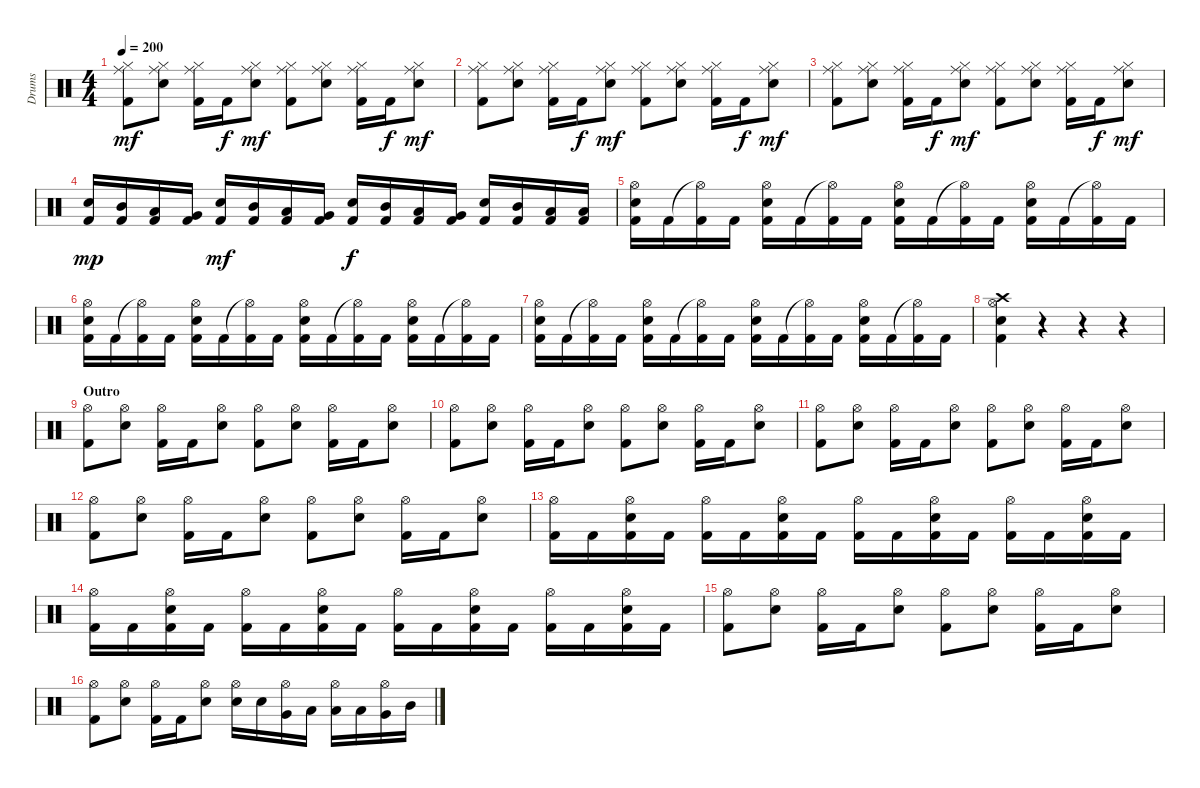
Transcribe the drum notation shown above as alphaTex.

\track ("Drums" "Drums") {instrument percussion}
\staff {score}
\articulation defaults
\ts (4 4)
\tempo 200
\clef neutral
\ks c
("Hi-Hat (closed)" "Ride (middle)" "Kick (hit) 2").8{dy mf} ("Hi-Hat (closed)" "Ride (middle)" "Snare (hit) 2").8 ("Hi-Hat (closed)" "Ride (middle)" "Kick (hit) 2").16 "Kick (hit) 2".16{dy f} ("Hi-Hat (closed)" "Ride (middle)" "Snare (hit) 2").8{dy mf} ("Hi-Hat (closed)" "Ride (middle)" "Kick (hit) 2").8 ("Hi-Hat (closed)" "Ride (middle)" "Snare (hit) 2").8 ("Hi-Hat (closed)" "Ride (middle)" "Kick (hit) 2").16 "Kick (hit) 2".16{dy f} ("Hi-Hat (closed)" "Ride (middle)" "Snare (hit) 2").8{dy mf} |
("Hi-Hat (closed)" "Ride (middle)" "Kick (hit) 2").8 ("Hi-Hat (closed)" "Ride (middle)" "Snare (hit) 2").8 ("Hi-Hat (closed)" "Ride (middle)" "Kick (hit) 2").16 "Kick (hit) 2".16{dy f} ("Hi-Hat (closed)" "Ride (middle)" "Snare (hit) 2").8{dy mf} ("Hi-Hat (closed)" "Ride (middle)" "Kick (hit) 2").8 ("Hi-Hat (closed)" "Ride (middle)" "Snare (hit) 2").8 ("Hi-Hat (closed)" "Ride (middle)" "Kick (hit) 2").16 "Kick (hit) 2".16{dy f} ("Hi-Hat (closed)" "Ride (middle)" "Snare (hit) 2").8{dy mf} |
("Hi-Hat (closed)" "Ride (middle)" "Kick (hit) 2").8 ("Hi-Hat (closed)" "Ride (middle)" "Snare (hit) 2").8 ("Hi-Hat (closed)" "Ride (middle)" "Kick (hit) 2").16 "Kick (hit) 2".16{dy f} ("Hi-Hat (closed)" "Ride (middle)" "Snare (hit) 2").8{dy mf} ("Hi-Hat (closed)" "Ride (middle)" "Kick (hit) 2").8 ("Hi-Hat (closed)" "Ride (middle)" "Snare (hit) 2").8 ("Hi-Hat (closed)" "Ride (middle)" "Kick (hit) 2").16 "Kick (hit) 2".16{dy f} ("Hi-Hat (closed)" "Ride (middle)" "Snare (hit) 2").8{dy mf} |
("Snare (hit) 2" "Kick (hit) 2").16{dy mp} ("Mid Tom (hit)" "Kick (hit) 2").16 ("Low Tom (hit)" "Kick (hit) 2").16 ("Very Low Tom (hit)" "Kick (hit) 2").16 ("Snare (hit) 2" "Kick (hit) 2").16{dy mf} ("Mid Tom (hit)" "Kick (hit) 2").16 ("Low Tom (hit)" "Kick (hit) 2").16 ("Very Low Tom (hit)" "Kick (hit) 2").16 ("Snare (hit) 2" "Kick (hit) 2").16{dy f} ("Mid Tom (hit)" "Kick (hit) 2").16 ("Low Tom (hit)" "Kick (hit) 2").16 ("Very Low Tom (hit)" "Kick (hit) 2").16 ("Snare (hit) 2" "Kick (hit) 2").16 ("Mid Tom (hit)" "Kick (hit) 2").16 ("Low Tom (hit)" "Kick (hit) 2").16 ("Low Floor Tom (hit)" "Kick (hit) 2").16 |
("Hi-Hat (open)" "Snare (hit) 2" "Kick (hit) 2").16 "Kick (hit) 2".16 ("Hi-Hat (open)"{t} "Kick (hit) 2").16 "Kick (hit) 2".16 ("Hi-Hat (open)" "Snare (hit) 2" "Kick (hit) 2").16 "Kick (hit) 2".16 ("Hi-Hat (open)"{t} "Kick (hit) 2").16 "Kick (hit) 2".16 ("Hi-Hat (open)" "Snare (hit) 2" "Kick (hit) 2").16 "Kick (hit) 2".16 ("Hi-Hat (open)"{t} "Kick (hit) 2").16 "Kick (hit) 2".16 ("Hi-Hat (open)" "Snare (hit) 2" "Kick (hit) 2").16 "Kick (hit) 2".16 ("Hi-Hat (open)"{t} "Kick (hit) 2").16 "Kick (hit) 2".16 |
("Hi-Hat (open)" "Snare (hit) 2" "Kick (hit) 2").16 "Kick (hit) 2".16 ("Hi-Hat (open)"{t} "Kick (hit) 2").16 "Kick (hit) 2".16 ("Hi-Hat (open)" "Snare (hit) 2" "Kick (hit) 2").16 "Kick (hit) 2".16 ("Hi-Hat (open)"{t} "Kick (hit) 2").16 "Kick (hit) 2".16 ("Hi-Hat (open)" "Snare (hit) 2" "Kick (hit) 2").16 "Kick (hit) 2".16 ("Hi-Hat (open)"{t} "Kick (hit) 2").16 "Kick (hit) 2".16 ("Hi-Hat (open)" "Snare (hit) 2" "Kick (hit) 2").16 "Kick (hit) 2".16 ("Hi-Hat (open)"{t} "Kick (hit) 2").16 "Kick (hit) 2".16 |
("Hi-Hat (open)" "Snare (hit) 2" "Kick (hit) 2").16 "Kick (hit) 2".16 ("Hi-Hat (open)"{t} "Kick (hit) 2").16 "Kick (hit) 2".16 ("Hi-Hat (open)" "Snare (hit) 2" "Kick (hit) 2").16 "Kick (hit) 2".16 ("Hi-Hat (open)"{t} "Kick (hit) 2").16 "Kick (hit) 2".16 ("Hi-Hat (open)" "Snare (hit) 2" "Kick (hit) 2").16 "Kick (hit) 2".16 ("Hi-Hat (open)"{t} "Kick (hit) 2").16 "Kick (hit) 2".16 ("Hi-Hat (open)" "Snare (hit) 2" "Kick (hit) 2").16 "Kick (hit) 2".16 ("Hi-Hat (open)"{t} "Kick (hit) 2").16 "Kick (hit) 2".16 |
("Crash high (hit)" "Hi-Hat (open)" "Snare (hit) 2" "Kick (hit) 2").4 r.4 r.4 r.4 |
\section ("" "Outro")
("Hi-Hat (open)" "Kick (hit) 2").8 ("Hi-Hat (open)" "Snare (hit) 2").8 ("Hi-Hat (open)" "Kick (hit) 2").16 "Kick (hit) 2".16 ("Hi-Hat (open)" "Snare (hit) 2").8 ("Hi-Hat (open)" "Kick (hit) 2").8 ("Hi-Hat (open)" "Snare (hit) 2").8 ("Hi-Hat (open)" "Kick (hit) 2").16 "Kick (hit) 2".16 ("Hi-Hat (open)" "Snare (hit) 2").8 |
("Hi-Hat (open)" "Kick (hit) 2").8 ("Hi-Hat (open)" "Snare (hit) 2").8 ("Hi-Hat (open)" "Kick (hit) 2").16 "Kick (hit) 2".16 ("Hi-Hat (open)" "Snare (hit) 2").8 ("Hi-Hat (open)" "Kick (hit) 2").8 ("Hi-Hat (open)" "Snare (hit) 2").8 ("Hi-Hat (open)" "Kick (hit) 2").16 "Kick (hit) 2".16 ("Hi-Hat (open)" "Snare (hit) 2").8 |
("Hi-Hat (open)" "Kick (hit) 2").8 ("Hi-Hat (open)" "Snare (hit) 2").8 ("Hi-Hat (open)" "Kick (hit) 2").16 "Kick (hit) 2".16 ("Hi-Hat (open)" "Snare (hit) 2").8 ("Hi-Hat (open)" "Kick (hit) 2").8 ("Hi-Hat (open)" "Snare (hit) 2").8 ("Hi-Hat (open)" "Kick (hit) 2").16 "Kick (hit) 2".16 ("Hi-Hat (open)" "Snare (hit) 2").8 |
("Hi-Hat (open)" "Kick (hit) 2").8 ("Hi-Hat (open)" "Snare (hit) 2").8 ("Hi-Hat (open)" "Kick (hit) 2").16 "Kick (hit) 2".16 ("Hi-Hat (open)" "Snare (hit) 2").8 ("Hi-Hat (open)" "Kick (hit) 2").8 ("Hi-Hat (open)" "Snare (hit) 2").8 ("Hi-Hat (open)" "Kick (hit) 2").16 "Kick (hit) 2".16 ("Hi-Hat (open)" "Snare (hit) 2").8 |
("Hi-Hat (open)" "Kick (hit) 2").16 "Kick (hit) 2".16 ("Hi-Hat (open)" "Snare (hit) 2" "Kick (hit) 2").16 "Kick (hit) 2".16 ("Hi-Hat (open)" "Kick (hit) 2").16 "Kick (hit) 2".16 ("Hi-Hat (open)" "Snare (hit) 2" "Kick (hit) 2").16 "Kick (hit) 2".16 ("Hi-Hat (open)" "Kick (hit) 2").16 "Kick (hit) 2".16 ("Hi-Hat (open)" "Snare (hit) 2" "Kick (hit) 2").16 "Kick (hit) 2".16 ("Hi-Hat (open)" "Kick (hit) 2").16 "Kick (hit) 2".16 ("Hi-Hat (open)" "Snare (hit) 2" "Kick (hit) 2").16 "Kick (hit) 2".16 |
("Hi-Hat (open)" "Kick (hit) 2").16 "Kick (hit) 2".16 ("Hi-Hat (open)" "Snare (hit) 2" "Kick (hit) 2").16 "Kick (hit) 2".16 ("Hi-Hat (open)" "Kick (hit) 2").16 "Kick (hit) 2".16 ("Hi-Hat (open)" "Snare (hit) 2" "Kick (hit) 2").16 "Kick (hit) 2".16 ("Hi-Hat (open)" "Kick (hit) 2").16 "Kick (hit) 2".16 ("Hi-Hat (open)" "Snare (hit) 2" "Kick (hit) 2").16 "Kick (hit) 2".16 ("Hi-Hat (open)" "Kick (hit) 2").16 "Kick (hit) 2".16 ("Hi-Hat (open)" "Snare (hit) 2" "Kick (hit) 2").16 "Kick (hit) 2".16 |
("Hi-Hat (open)" "Kick (hit) 2").8 ("Hi-Hat (open)" "Snare (hit) 2").8 ("Hi-Hat (open)" "Kick (hit) 2").16 "Kick (hit) 2".16 ("Hi-Hat (open)" "Snare (hit) 2").8 ("Hi-Hat (open)" "Kick (hit) 2").8 ("Hi-Hat (open)" "Snare (hit) 2").8 ("Hi-Hat (open)" "Kick (hit) 2").16 "Kick (hit) 2".16 ("Hi-Hat (open)" "Snare (hit) 2").8 |
("Hi-Hat (open)" "Kick (hit) 2").8 ("Hi-Hat (open)" "Snare (hit) 2").8 ("Hi-Hat (open)" "Kick (hit) 2").16 "Kick (hit) 2".16 ("Hi-Hat (open)" "Snare (hit) 2").8 ("Hi-Hat (open)" "Snare (hit) 2").16 "Snare (hit) 2".16 ("Hi-Hat (open)" "Very Low Tom (hit)").16 "Low Tom (hit)".16 ("Hi-Hat (open)" "Low Floor Tom (hit)").16 "Low Tom (hit)".16 ("Hi-Hat (open)" "Very Low Tom (hit)").16 "Mid Tom (hit)".16
